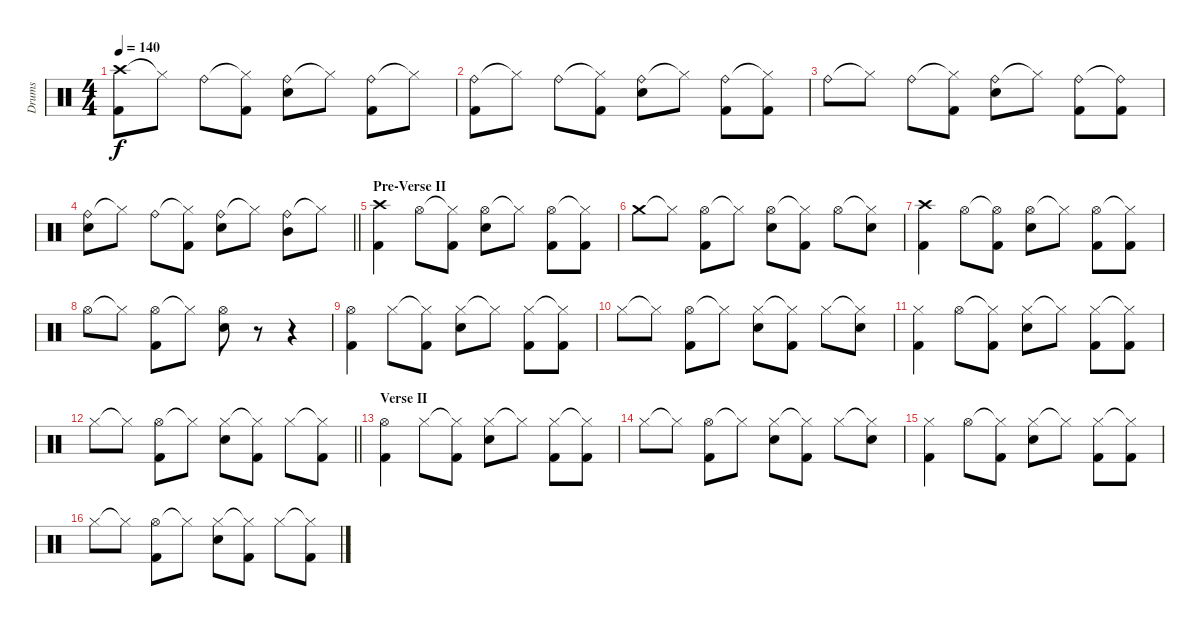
\track ("Drums" "Drums") {instrument percussion}
\staff {score}
\articulation defaults
\ts (4 4)
\tempo 140
\clef neutral
\ks c
("Crash high (hit)" "Kick (hit) 2").8{dy f} "Hi-Hat (closed)"{t}.8 "Ride (bell)".8 ("Hi-Hat (closed)"{t} "Kick (hit) 2").8 ("Ride (bell)" "Snare (hit) 2").8 "Hi-Hat (closed)"{t}.8 ("Ride (bell)" "Kick (hit) 2").8 "Hi-Hat (closed)"{t}.8 |
("Ride (bell)" "Kick (hit) 2").8 "Hi-Hat (closed)"{t}.8 "Ride (bell)".8 ("Hi-Hat (closed)"{t} "Kick (hit) 2").8 ("Ride (bell)" "Snare (hit) 2").8 "Hi-Hat (closed)"{t}.8 ("Ride (bell)" "Kick (hit) 2").8 ("Hi-Hat (closed)"{t} "Kick (hit) 2").8 |
"Ride (bell)".8 "Hi-Hat (closed)"{t}.8 "Ride (bell)".8 ("Hi-Hat (closed)"{t} "Kick (hit) 2").8 ("Ride (bell)" "Snare (hit) 2").8 "Hi-Hat (closed)"{t}.8 ("Ride (bell)" "Kick (hit) 2").8 ("Ride (bell)"{t} "Kick (hit) 2").8 |
\barLineRight lightlight
("Ride (bell)" "Snare (hit) 2").8 "Hi-Hat (closed)"{t}.8 "Ride (bell)".8 ("Hi-Hat (closed)"{t} "Kick (hit) 2").8 ("Ride (bell)" "Snare (hit) 2").8 "Hi-Hat (closed)"{t}.8 ("Ride (bell)" "Mid Tom (hit)").8 "Hi-Hat (closed)"{t}.8 |
\section ("" "Pre-Verse II")
("Crash high (hit)" "Kick (hit) 2").4 "Hi-Hat (open)".8 ("Hi-Hat (closed)"{t} "Kick (hit) 2").8 ("Hi-Hat (open)" "Snare (hit) 2").8 "Hi-Hat (closed)"{t}.8 ("Hi-Hat (open)" "Kick (hit) 2").8 ("Hi-Hat (closed)"{t} "Kick (hit) 2").8 |
"Crash medium (hit)".8 "Hi-Hat (closed)"{t}.8 ("Hi-Hat (open)" "Kick (hit) 2").8 "Hi-Hat (closed)"{t}.8 ("Hi-Hat (open)" "Snare (hit) 2").8 ("Hi-Hat (closed)"{t} "Kick (hit) 2").8 "Hi-Hat (open)".8 ("Hi-Hat (closed)"{t} "Snare (hit) 2").8 |
("Crash high (hit)" "Kick (hit) 2").4 "Hi-Hat (open)".8 ("Hi-Hat (open)"{t} "Kick (hit) 2").8 ("Hi-Hat (open)" "Snare (hit) 2").8 "Hi-Hat (closed)"{t}.8 ("Hi-Hat (open)" "Kick (hit) 2").8 ("Hi-Hat (closed)"{t} "Kick (hit) 2").8 |
"Hi-Hat (open)".8 "Hi-Hat (closed)"{t}.8 ("Hi-Hat (open)" "Kick (hit) 2").8 "Hi-Hat (closed)"{t}.8 ("Hi-Hat (open)" "Snare (hit) 2").8 r.8 r.4 |
("Hi-Hat (open)" "Kick (hit) 2").4 "Hi-Hat (closed)".8 ("Hi-Hat (closed)"{t} "Kick (hit) 2").8 ("Hi-Hat (closed)" "Snare (hit) 2").8 "Hi-Hat (closed)"{t}.8 ("Hi-Hat (closed)" "Kick (hit) 2").8 ("Hi-Hat (closed)"{t} "Kick (hit) 2").8 |
"Hi-Hat (closed)".8 "Hi-Hat (closed)"{t}.8 ("Hi-Hat (open)" "Kick (hit) 2").8 "Hi-Hat (closed)"{t}.8 ("Hi-Hat (closed)" "Snare (hit) 2").8 ("Hi-Hat (closed)"{t} "Kick (hit) 2").8 "Hi-Hat (closed)".8 ("Hi-Hat (closed)"{t} "Snare (hit) 2").8 |
("Hi-Hat (closed)" "Kick (hit) 2").4 "Hi-Hat (open)".8 ("Hi-Hat (closed)"{t} "Kick (hit) 2").8 ("Hi-Hat (closed)" "Snare (hit) 2").8 "Hi-Hat (closed)"{t}.8 ("Hi-Hat (closed)" "Kick (hit) 2").8 ("Hi-Hat (closed)"{t} "Kick (hit) 2").8 |
\barLineRight lightlight "Hi-Hat (closed)".8 "Hi-Hat (closed)"{t}.8
("Hi-Hat (open)" "Kick (hit) 2").8 "Hi-Hat (closed)"{t}.8 ("Hi-Hat (closed)" "Snare (hit) 2").8 ("Hi-Hat (closed)"{t} "Kick (hit) 2").8 "Hi-Hat (closed)".8 ("Hi-Hat (closed)"{t} "Kick (hit) 2").8 |
\section ("" "Verse II")
("Hi-Hat (open)" "Kick (hit) 2").4 "Hi-Hat (closed)".8 ("Hi-Hat (closed)"{t} "Kick (hit) 2").8 ("Hi-Hat (closed)" "Snare (hit) 2").8 "Hi-Hat (closed)"{t}.8 ("Hi-Hat (closed)" "Kick (hit) 2").8 ("Hi-Hat (closed)"{t} "Kick (hit) 2").8 |
"Hi-Hat (closed)".8 "Hi-Hat (closed)"{t}.8 ("Hi-Hat (open)" "Kick (hit) 2").8 "Hi-Hat (closed)"{t}.8 ("Hi-Hat (closed)" "Snare (hit) 2").8 ("Hi-Hat (closed)"{t} "Kick (hit) 2").8 "Hi-Hat (closed)".8 ("Hi-Hat (closed)"{t} "Snare (hit) 2").8 |
("Hi-Hat (closed)" "Kick (hit) 2").4 "Hi-Hat (open)".8 ("Hi-Hat (closed)"{t} "Kick (hit) 2").8 ("Hi-Hat (closed)" "Snare (hit) 2").8 "Hi-Hat (closed)"{t}.8 ("Hi-Hat (closed)" "Kick (hit) 2").8 ("Hi-Hat (closed)"{t} "Kick (hit) 2").8 |
"Hi-Hat (closed)".8 "Hi-Hat (closed)"{t}.8 ("Hi-Hat (open)" "Kick (hit) 2").8 "Hi-Hat (closed)"{t}.8 ("Hi-Hat (closed)" "Snare (hit) 2").8 ("Hi-Hat (closed)"{t} "Kick (hit) 2").8 "Hi-Hat (closed)".8 ("Hi-Hat (closed)"{t} "Kick (hit) 2").8
